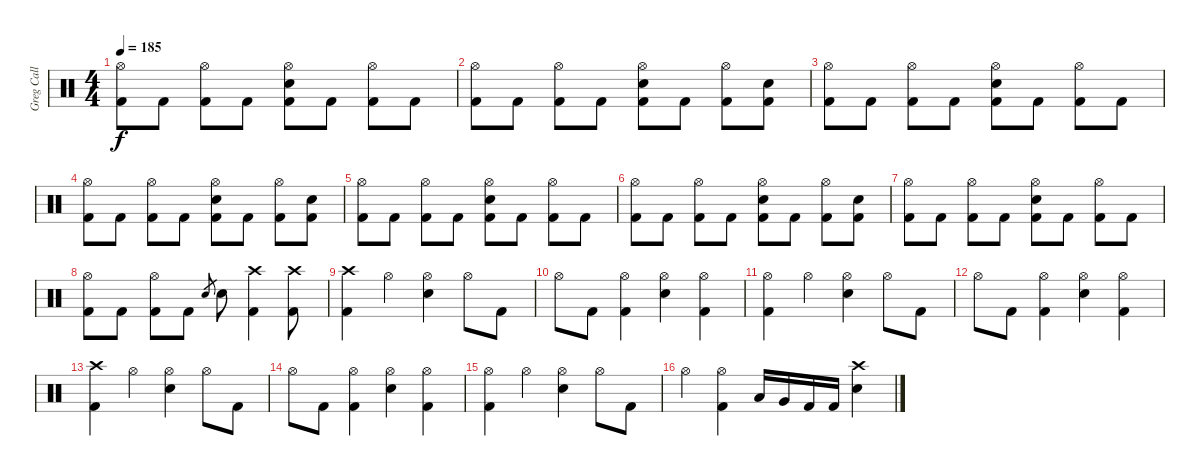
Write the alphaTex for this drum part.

\track ("Greg Call (Drums)" "Greg Call ") {instrument percussion}
\staff {score}
\articulation defaults
\ts (4 4)
\tempo 185
\clef neutral
\ks c
("Hi-Hat (open)" "Kick (hit) 2").8{dy f} "Kick (hit) 2".8 ("Hi-Hat (open)" "Kick (hit) 2").8 "Kick (hit) 2".8 ("Snare (hit) 2" "Hi-Hat (open)" "Kick (hit) 2").8 "Kick (hit) 2".8 ("Hi-Hat (open)" "Kick (hit) 2").8 "Kick (hit) 2".8 |
("Hi-Hat (open)" "Kick (hit) 2").8 "Kick (hit) 2".8 ("Hi-Hat (open)" "Kick (hit) 2").8 "Kick (hit) 2".8 ("Snare (hit) 2" "Hi-Hat (open)" "Kick (hit) 2").8 "Kick (hit) 2".8 ("Hi-Hat (open)" "Kick (hit) 2").8 ("Snare (hit) 2" "Kick (hit) 2").8 |
("Hi-Hat (open)" "Kick (hit) 2").8 "Kick (hit) 2".8 ("Hi-Hat (open)" "Kick (hit) 2").8 "Kick (hit) 2".8 ("Snare (hit) 2" "Hi-Hat (open)" "Kick (hit) 2").8 "Kick (hit) 2".8 ("Hi-Hat (open)" "Kick (hit) 2").8 "Kick (hit) 2".8 |
("Hi-Hat (open)" "Kick (hit) 2").8 "Kick (hit) 2".8 ("Hi-Hat (open)" "Kick (hit) 2").8 "Kick (hit) 2".8 ("Snare (hit) 2" "Hi-Hat (open)" "Kick (hit) 2").8 "Kick (hit) 2".8 ("Hi-Hat (open)" "Kick (hit) 2").8 ("Snare (hit) 2" "Kick (hit) 2").8 |
("Hi-Hat (open)" "Kick (hit) 2").8 "Kick (hit) 2".8 ("Hi-Hat (open)" "Kick (hit) 2").8 "Kick (hit) 2".8 ("Snare (hit) 2" "Hi-Hat (open)" "Kick (hit) 2").8 "Kick (hit) 2".8 ("Hi-Hat (open)" "Kick (hit) 2").8 "Kick (hit) 2".8 |
("Hi-Hat (open)" "Kick (hit) 2").8 "Kick (hit) 2".8 ("Hi-Hat (open)" "Kick (hit) 2").8 "Kick (hit) 2".8 ("Snare (hit) 2" "Hi-Hat (open)" "Kick (hit) 2").8 "Kick (hit) 2".8 ("Hi-Hat (open)" "Kick (hit) 2").8 ("Snare (hit) 2" "Kick (hit) 2").8 |
("Hi-Hat (open)" "Kick (hit) 2").8 "Kick (hit) 2".8 ("Hi-Hat (open)" "Kick (hit) 2").8 "Kick (hit) 2".8 ("Snare (hit) 2" "Hi-Hat (open)" "Kick (hit) 2").8 "Kick (hit) 2".8 ("Hi-Hat (open)" "Kick (hit) 2").8 "Kick (hit) 2".8 |
("Hi-Hat (open)" "Kick (hit) 2").8 "Kick (hit) 2".8 ("Hi-Hat (open)" "Kick (hit) 2").8 "Kick (hit) 2".8 "Snare (hit) 2".8{gr} "Snare (hit) 2".8 ("Crash high (hit)" "Kick (hit) 2").4 ("Crash high (hit)" "Kick (hit) 2").8 |
("Crash high (hit)" "Kick (hit) 2").4 "Hi-Hat (open)".4 ("Snare (hit) 2" "Hi-Hat (open)").4 "Hi-Hat (open)".8 "Kick (hit) 2".8 |
"Hi-Hat (open)".8 "Kick (hit) 2".8 ("Hi-Hat (open)" "Kick (hit) 2").4 ("Hi-Hat (open)" "Snare (hit) 2").4 ("Hi-Hat (open)" "Kick (hit) 2").4 |
("Hi-Hat (open)" "Kick (hit) 2").4 "Hi-Hat (open)".4 ("Snare (hit) 2" "Hi-Hat (open)").4 "Hi-Hat (open)".8 "Kick (hit) 2".8 |
"Hi-Hat (open)".8 "Kick (hit) 2".8 ("Hi-Hat (open)" "Kick (hit) 2").4 ("Hi-Hat (open)" "Snare (hit) 2").4 ("Hi-Hat (open)" "Kick (hit) 2").4 |
("Crash high (hit)" "Kick (hit) 2").4 "Hi-Hat (open)".4 ("Snare (hit) 2" "Hi-Hat (open)").4 "Hi-Hat (open)".8 "Kick (hit) 2".8 |
"Hi-Hat (open)".8 "Kick (hit) 2".8 ("Hi-Hat (open)" "Kick (hit) 2").4 ("Hi-Hat (open)" "Snare (hit) 2").4 ("Hi-Hat (open)" "Kick (hit) 2").4 |
("Hi-Hat (open)" "Kick (hit) 2").4 "Hi-Hat (open)".4 ("Snare (hit) 2" "Hi-Hat (open)").4 "Hi-Hat (open)".8 "Kick (hit) 2".8 |
"Hi-Hat (open)".4 ("Hi-Hat (open)" "Kick (hit) 2").4 "Low Tom (hit)".16 "Very Low Tom (hit)".16 "Kick (hit) 2".16 "Kick (hit) 2".16 ("Crash high (hit)" "Snare (hit) 2").4
